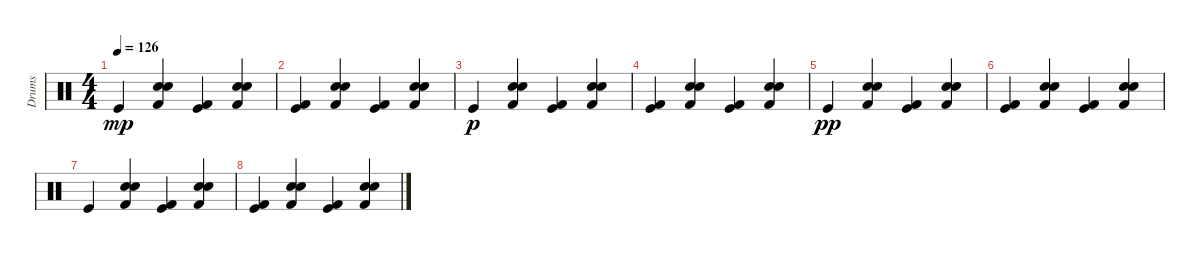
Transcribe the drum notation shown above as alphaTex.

\track ("Drums" "Drums") {instrument percussion}
\staff {score}
\articulation defaults
\ts (4 4)
\tempo 126
\clef neutral
\ks c "Kick (hit)".4{dy mp}
("Snare (hit) 2" "Hand Clap (hit)" "Kick (hit) 2").4 ("Kick (hit)" "Kick (hit) 2").4 ("Snare (hit) 2" "Hand Clap (hit)" "Kick (hit) 2").4 |
("Kick (hit)" "Kick (hit) 2").4 ("Snare (hit) 2" "Hand Clap (hit)" "Kick (hit) 2").4 ("Kick (hit)" "Kick (hit) 2").4 ("Snare (hit) 2" "Hand Clap (hit)" "Kick (hit) 2").4 |
"Kick (hit)".4{dy p} ("Snare (hit) 2" "Hand Clap (hit)" "Kick (hit) 2").4 ("Kick (hit)" "Kick (hit) 2").4 ("Snare (hit) 2" "Hand Clap (hit)" "Kick (hit) 2").4 |
("Kick (hit)" "Kick (hit) 2").4 ("Snare (hit) 2" "Hand Clap (hit)" "Kick (hit) 2").4 ("Kick (hit)" "Kick (hit) 2").4 ("Snare (hit) 2" "Hand Clap (hit)" "Kick (hit) 2").4 |
"Kick (hit)".4{dy pp} ("Snare (hit) 2" "Hand Clap (hit)" "Kick (hit) 2").4 ("Kick (hit)" "Kick (hit) 2").4 ("Snare (hit) 2" "Hand Clap (hit)" "Kick (hit) 2").4 |
("Kick (hit)" "Kick (hit) 2").4 ("Snare (hit) 2" "Hand Clap (hit)" "Kick (hit) 2").4 ("Kick (hit)" "Kick (hit) 2").4 ("Snare (hit) 2" "Hand Clap (hit)" "Kick (hit) 2").4 |
"Kick (hit)".4 ("Snare (hit) 2" "Hand Clap (hit)" "Kick (hit) 2").4 ("Kick (hit)" "Kick (hit) 2").4 ("Snare (hit) 2" "Hand Clap (hit)" "Kick (hit) 2").4 |
("Kick (hit)" "Kick (hit) 2").4 ("Snare (hit) 2" "Hand Clap (hit)" "Kick (hit) 2").4 ("Kick (hit)" "Kick (hit) 2").4 ("Snare (hit) 2" "Hand Clap (hit)" "Kick (hit) 2").4
